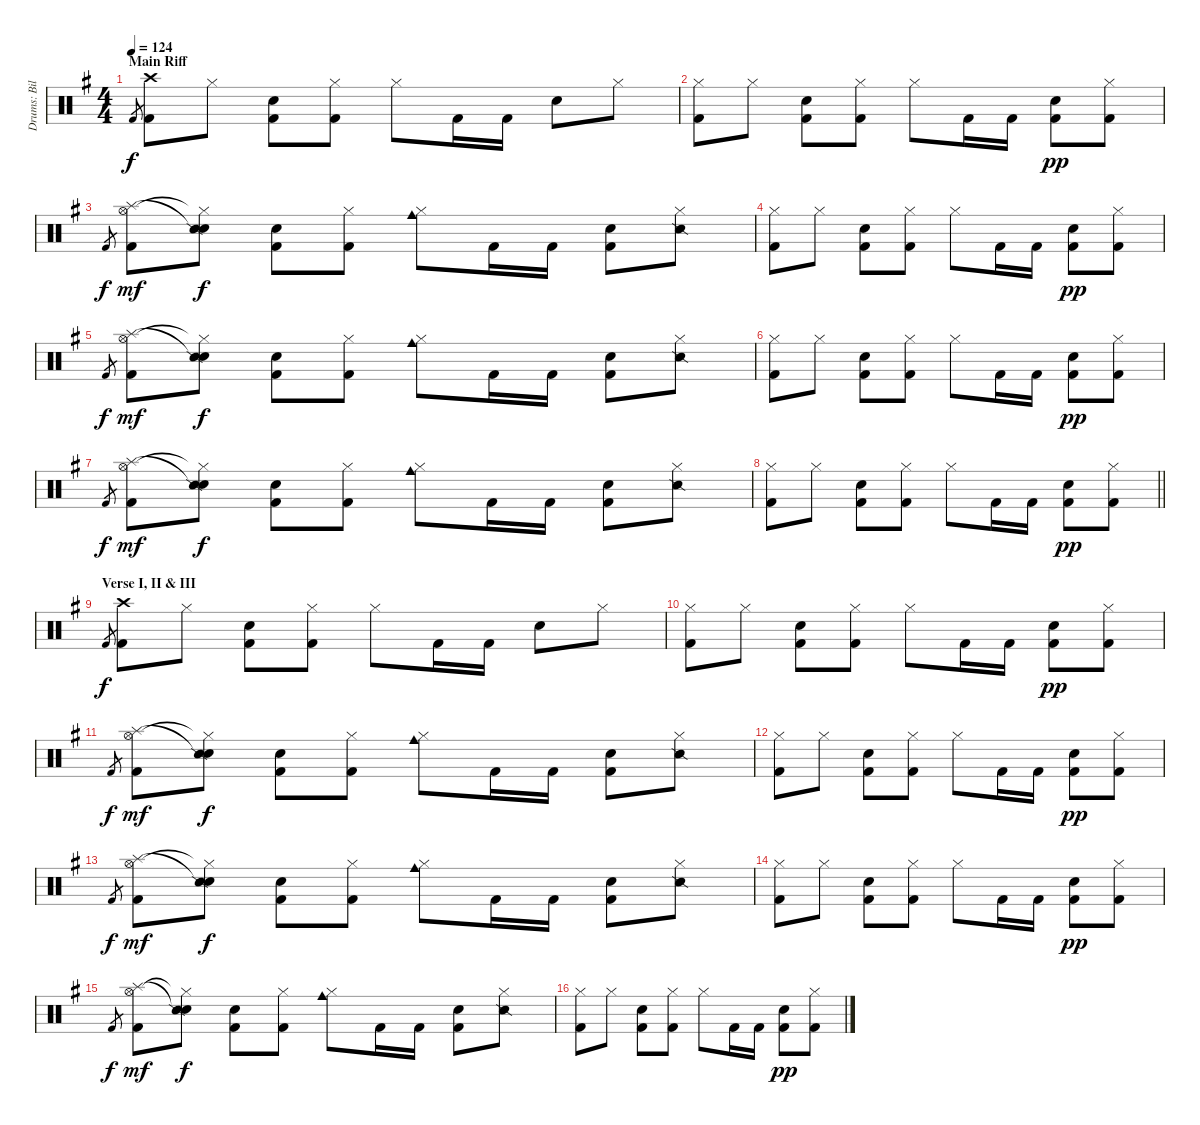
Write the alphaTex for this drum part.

\track ("Drums: Bill" "Drums: Bil") {instrument percussion}
\staff {score}
\articulation defaults
\ts (4 4)
\section ("" "Main Riff")
\tempo 124
\clef neutral
\ks g "Kick (hit) 2".8{gr dy f}
("Crash high (hit)" "Kick (hit) 2").8 "Hi-Hat (closed)".8 ("Electric Snare (hit)" "Kick (hit) 2").8 ("Hi-Hat (closed)" "Kick (hit) 2").8 "Hi-Hat (closed)".8 "Kick (hit) 2".16 "Kick (hit) 2".16 "Electric Snare (hit)".8 "Hi-Hat (closed)".8 |
("Hi-Hat (closed)" "Kick (hit) 2").8 "Hi-Hat (closed)".8 ("Electric Snare (hit)" "Kick (hit) 2").8 ("Hi-Hat (closed)" "Kick (hit) 2").8 "Hi-Hat (closed)".8 "Kick (hit) 2".16 "Kick (hit) 2".16 ("Electric Snare (hit)" "Kick (hit) 2").8{dy pp} ("Hi-Hat (closed)" "Kick (hit) 2").8 |
"Kick (hit) 2".8{gr dy f} ("Splash (hit)" "Hi-Hat (open)" "Kick (hit) 2").8{dy mf} ("Snare (hit)"{t} "Hi-Hat (closed)"{t} "Snare (side stick) 2").8{dy f} ("Electric Snare (hit)" "Kick (hit) 2").8 ("Hi-Hat (closed)" "Kick (hit) 2").8 ("Hi-Hat (closed)" "Cowbell medium (hit)").8 "Kick (hit) 2".16 "Kick (hit) 2".16 ("Electric Snare (hit)" "Kick (hit) 2").8 ("Hi-Hat (closed)" "Snare (side stick) 2").8 |
("Hi-Hat (closed)" "Kick (hit) 2").8 "Hi-Hat (closed)".8 ("Electric Snare (hit)" "Kick (hit) 2").8 ("Hi-Hat (closed)" "Kick (hit) 2").8 "Hi-Hat (closed)".8 "Kick (hit) 2".16 "Kick (hit) 2".16 ("Electric Snare (hit)" "Kick (hit) 2").8{dy pp} ("Hi-Hat (closed)" "Kick (hit) 2").8 |
"Kick (hit) 2".8{gr dy f} ("Splash (hit)" "Hi-Hat (open)" "Kick (hit) 2").8{dy mf} ("Snare (hit)"{t} "Hi-Hat (closed)"{t} "Snare (side stick) 2").8{dy f} ("Electric Snare (hit)" "Kick (hit) 2").8 ("Hi-Hat (closed)" "Kick (hit) 2").8 ("Hi-Hat (closed)" "Cowbell medium (hit)").8 "Kick (hit) 2".16 "Kick (hit) 2".16 ("Electric Snare (hit)" "Kick (hit) 2").8 ("Hi-Hat (closed)" "Snare (side stick) 2").8 |
("Hi-Hat (closed)" "Kick (hit) 2").8 "Hi-Hat (closed)".8 ("Electric Snare (hit)" "Kick (hit) 2").8 ("Hi-Hat (closed)" "Kick (hit) 2").8 "Hi-Hat (closed)".8 "Kick (hit) 2".16 "Kick (hit) 2".16 ("Electric Snare (hit)" "Kick (hit) 2").8{dy pp} ("Hi-Hat (closed)" "Kick (hit) 2").8 |
"Kick (hit) 2".8{gr dy f} ("Splash (hit)" "Hi-Hat (open)" "Kick (hit) 2").8{dy mf} ("Snare (hit)"{t} "Hi-Hat (closed)"{t} "Snare (side stick) 2").8{dy f} ("Electric Snare (hit)" "Kick (hit) 2").8 ("Hi-Hat (closed)" "Kick (hit) 2").8 ("Hi-Hat (closed)" "Cowbell medium (hit)").8 "Kick (hit) 2".16 "Kick (hit) 2".16 ("Electric Snare (hit)" "Kick (hit) 2").8 ("Hi-Hat (closed)" "Snare (side stick) 2").8 |
\barLineRight lightlight
("Hi-Hat (closed)" "Kick (hit) 2").8 "Hi-Hat (closed)".8 ("Electric Snare (hit)" "Kick (hit) 2").8 ("Hi-Hat (closed)" "Kick (hit) 2").8 "Hi-Hat (closed)".8 "Kick (hit) 2".16 "Kick (hit) 2".16 ("Electric Snare (hit)" "Kick (hit) 2").8{dy pp} ("Hi-Hat (closed)" "Kick (hit) 2").8 |
\section ("" "Verse I, II & III")
"Kick (hit) 2".8{gr dy f} ("Crash high (hit)" "Kick (hit) 2").8 "Hi-Hat (closed)".8 ("Electric Snare (hit)" "Kick (hit) 2").8 ("Hi-Hat (closed)" "Kick (hit) 2").8 "Hi-Hat (closed)".8 "Kick (hit) 2".16 "Kick (hit) 2".16 "Electric Snare (hit)".8 "Hi-Hat (closed)".8 |
("Hi-Hat (closed)" "Kick (hit) 2").8 "Hi-Hat (closed)".8 ("Electric Snare (hit)" "Kick (hit) 2").8 ("Hi-Hat (closed)" "Kick (hit) 2").8 "Hi-Hat (closed)".8 "Kick (hit) 2".16 "Kick (hit) 2".16 ("Electric Snare (hit)" "Kick (hit) 2").8{dy pp} ("Hi-Hat (closed)" "Kick (hit) 2").8 |
"Kick (hit) 2".8{gr dy f} ("Splash (hit)" "Hi-Hat (open)" "Kick (hit) 2").8{dy mf} ("Snare (hit)"{t} "Hi-Hat (closed)"{t} "Snare (side stick) 2").8{dy f} ("Electric Snare (hit)" "Kick (hit) 2").8 ("Hi-Hat (closed)" "Kick (hit) 2").8 ("Hi-Hat (closed)" "Cowbell medium (hit)").8 "Kick (hit) 2".16 "Kick (hit) 2".16 ("Electric Snare (hit)" "Kick (hit) 2").8 ("Hi-Hat (closed)" "Snare (side stick) 2").8 |
("Hi-Hat (closed)" "Kick (hit) 2").8 "Hi-Hat (closed)".8 ("Electric Snare (hit)" "Kick (hit) 2").8 ("Hi-Hat (closed)" "Kick (hit) 2").8 "Hi-Hat (closed)".8 "Kick (hit) 2".16 "Kick (hit) 2".16 ("Electric Snare (hit)" "Kick (hit) 2").8{dy pp} ("Hi-Hat (closed)" "Kick (hit) 2").8 |
"Kick (hit) 2".8{gr dy f} ("Splash (hit)" "Hi-Hat (open)" "Kick (hit) 2").8{dy mf} ("Snare (hit)"{t} "Hi-Hat (closed)"{t} "Snare (side stick) 2").8{dy f} ("Electric Snare (hit)" "Kick (hit) 2").8 ("Hi-Hat (closed)" "Kick (hit) 2").8 ("Hi-Hat (closed)" "Cowbell medium (hit)").8 "Kick (hit) 2".16 "Kick (hit) 2".16 ("Electric Snare (hit)" "Kick (hit) 2").8 ("Hi-Hat (closed)" "Snare (side stick) 2").8 |
("Hi-Hat (closed)" "Kick (hit) 2").8 "Hi-Hat (closed)".8 ("Electric Snare (hit)" "Kick (hit) 2").8 ("Hi-Hat (closed)" "Kick (hit) 2").8 "Hi-Hat (closed)".8 "Kick (hit) 2".16 "Kick (hit) 2".16 ("Electric Snare (hit)" "Kick (hit) 2").8{dy pp} ("Hi-Hat (closed)" "Kick (hit) 2").8 |
"Kick (hit) 2".8{gr dy f} ("Splash (hit)" "Hi-Hat (open)" "Kick (hit) 2").8{dy mf} ("Snare (hit)"{t} "Hi-Hat (closed)"{t} "Snare (side stick) 2").8{dy f} ("Electric Snare (hit)" "Kick (hit) 2").8 ("Hi-Hat (closed)" "Kick (hit) 2").8 ("Hi-Hat (closed)" "Cowbell medium (hit)").8 "Kick (hit) 2".16 "Kick (hit) 2".16 ("Electric Snare (hit)" "Kick (hit) 2").8 ("Hi-Hat (closed)" "Snare (side stick) 2").8 |
("Hi-Hat (closed)" "Kick (hit) 2").8 "Hi-Hat (closed)".8 ("Electric Snare (hit)" "Kick (hit) 2").8 ("Hi-Hat (closed)" "Kick (hit) 2").8 "Hi-Hat (closed)".8 "Kick (hit) 2".16 "Kick (hit) 2".16 ("Electric Snare (hit)" "Kick (hit) 2").8{dy pp} ("Hi-Hat (closed)" "Kick (hit) 2").8
